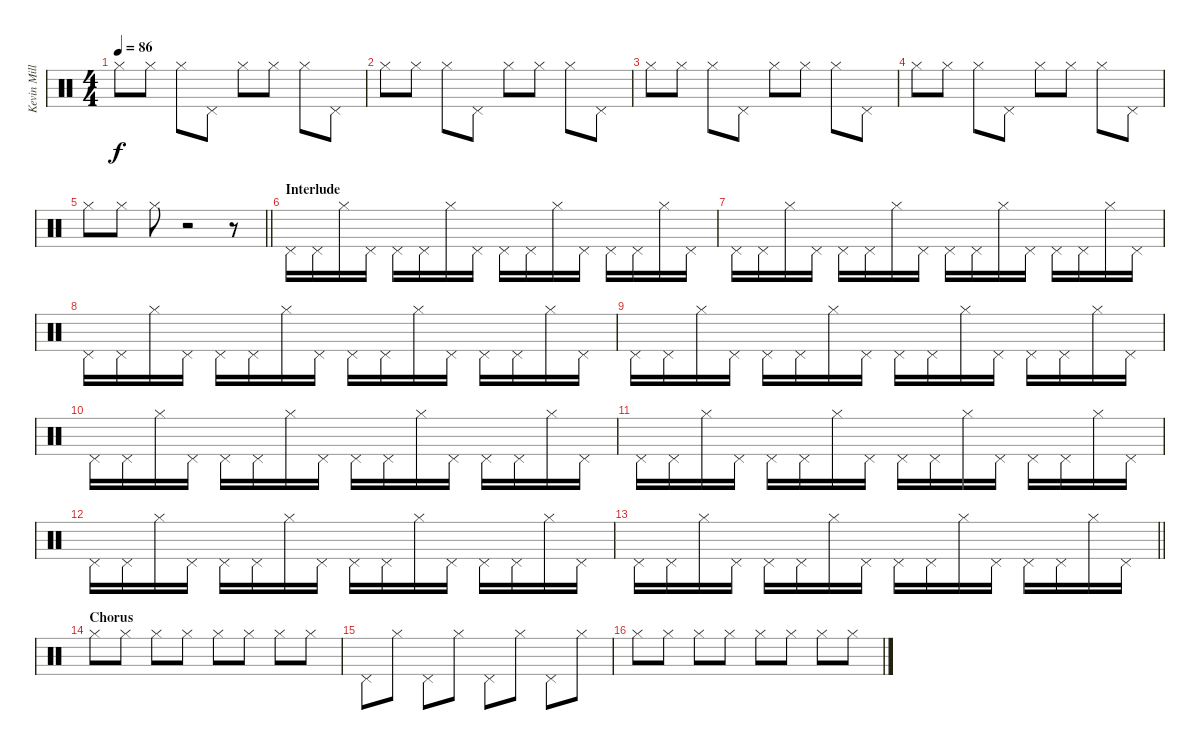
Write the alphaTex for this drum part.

\track ("Kevin Miller (Drums)" "Kevin Mill") {instrument percussion}
\staff {score}
\articulation defaults
\ts (4 4)
\tempo 86
\clef neutral
\ks c "Hi-Hat (closed)".8{dy f} "Hi-Hat (closed)".8 "Hi-Hat (closed)".8 "Pedal Hi-Hat (hit)".8 "Hi-Hat (closed)".8 "Hi-Hat (closed)".8 "Hi-Hat (closed)".8 "Pedal Hi-Hat (hit)".8
|
"Hi-Hat (closed)".8 "Hi-Hat (closed)".8 "Hi-Hat (closed)".8 "Pedal Hi-Hat (hit)".8 "Hi-Hat (closed)".8 "Hi-Hat (closed)".8 "Hi-Hat (closed)".8 "Pedal Hi-Hat (hit)".8 |
"Hi-Hat (closed)".8 "Hi-Hat (closed)".8 "Hi-Hat (closed)".8 "Pedal Hi-Hat (hit)".8 "Hi-Hat (closed)".8 "Hi-Hat (closed)".8 "Hi-Hat (closed)".8 "Pedal Hi-Hat (hit)".8 |
"Hi-Hat (closed)".8 "Hi-Hat (closed)".8 "Hi-Hat (closed)".8 "Pedal Hi-Hat (hit)".8 "Hi-Hat (closed)".8 "Hi-Hat (closed)".8 "Hi-Hat (closed)".8 "Pedal Hi-Hat (hit)".8 |
\barLineRight lightlight "Hi-Hat (closed)".8 "Hi-Hat (closed)".8 "Hi-Hat (closed)".8
r.2 r.8 |
\section ("" "Interlude")
"Pedal Hi-Hat (hit)".16 "Pedal Hi-Hat (hit)".16 "Hi-Hat (closed)".16 "Pedal Hi-Hat (hit)".16 "Pedal Hi-Hat (hit)".16 "Pedal Hi-Hat (hit)".16 "Hi-Hat (closed)".16 "Pedal Hi-Hat (hit)".16 "Pedal Hi-Hat (hit)".16 "Pedal Hi-Hat (hit)".16 "Hi-Hat (closed)".16 "Pedal Hi-Hat (hit)".16 "Pedal Hi-Hat (hit)".16 "Pedal Hi-Hat (hit)".16 "Hi-Hat (closed)".16 "Pedal Hi-Hat (hit)".16 |
"Pedal Hi-Hat (hit)".16 "Pedal Hi-Hat (hit)".16 "Hi-Hat (closed)".16 "Pedal Hi-Hat (hit)".16 "Pedal Hi-Hat (hit)".16 "Pedal Hi-Hat (hit)".16 "Hi-Hat (closed)".16 "Pedal Hi-Hat (hit)".16 "Pedal Hi-Hat (hit)".16 "Pedal Hi-Hat (hit)".16 "Hi-Hat (closed)".16 "Pedal Hi-Hat (hit)".16 "Pedal Hi-Hat (hit)".16 "Pedal Hi-Hat (hit)".16 "Hi-Hat (closed)".16 "Pedal Hi-Hat (hit)".16 |
"Pedal Hi-Hat (hit)".16 "Pedal Hi-Hat (hit)".16 "Hi-Hat (closed)".16 "Pedal Hi-Hat (hit)".16 "Pedal Hi-Hat (hit)".16 "Pedal Hi-Hat (hit)".16 "Hi-Hat (closed)".16 "Pedal Hi-Hat (hit)".16 "Pedal Hi-Hat (hit)".16 "Pedal Hi-Hat (hit)".16 "Hi-Hat (closed)".16 "Pedal Hi-Hat (hit)".16 "Pedal Hi-Hat (hit)".16 "Pedal Hi-Hat (hit)".16 "Hi-Hat (closed)".16 "Pedal Hi-Hat (hit)".16 |
"Pedal Hi-Hat (hit)".16 "Pedal Hi-Hat (hit)".16 "Hi-Hat (closed)".16 "Pedal Hi-Hat (hit)".16 "Pedal Hi-Hat (hit)".16 "Pedal Hi-Hat (hit)".16 "Hi-Hat (closed)".16 "Pedal Hi-Hat (hit)".16 "Pedal Hi-Hat (hit)".16 "Pedal Hi-Hat (hit)".16 "Hi-Hat (closed)".16 "Pedal Hi-Hat (hit)".16 "Pedal Hi-Hat (hit)".16 "Pedal Hi-Hat (hit)".16 "Hi-Hat (closed)".16 "Pedal Hi-Hat (hit)".16 |
"Pedal Hi-Hat (hit)".16 "Pedal Hi-Hat (hit)".16 "Hi-Hat (closed)".16 "Pedal Hi-Hat (hit)".16 "Pedal Hi-Hat (hit)".16 "Pedal Hi-Hat (hit)".16 "Hi-Hat (closed)".16 "Pedal Hi-Hat (hit)".16 "Pedal Hi-Hat (hit)".16 "Pedal Hi-Hat (hit)".16 "Hi-Hat (closed)".16 "Pedal Hi-Hat (hit)".16 "Pedal Hi-Hat (hit)".16 "Pedal Hi-Hat (hit)".16 "Hi-Hat (closed)".16 "Pedal Hi-Hat (hit)".16 |
"Pedal Hi-Hat (hit)".16 "Pedal Hi-Hat (hit)".16 "Hi-Hat (closed)".16 "Pedal Hi-Hat (hit)".16 "Pedal Hi-Hat (hit)".16 "Pedal Hi-Hat (hit)".16 "Hi-Hat (closed)".16 "Pedal Hi-Hat (hit)".16 "Pedal Hi-Hat (hit)".16 "Pedal Hi-Hat (hit)".16 "Hi-Hat (closed)".16 "Pedal Hi-Hat (hit)".16 "Pedal Hi-Hat (hit)".16 "Pedal Hi-Hat (hit)".16 "Hi-Hat (closed)".16 "Pedal Hi-Hat (hit)".16 |
"Pedal Hi-Hat (hit)".16 "Pedal Hi-Hat (hit)".16 "Hi-Hat (closed)".16 "Pedal Hi-Hat (hit)".16 "Pedal Hi-Hat (hit)".16 "Pedal Hi-Hat (hit)".16 "Hi-Hat (closed)".16 "Pedal Hi-Hat (hit)".16 "Pedal Hi-Hat (hit)".16 "Pedal Hi-Hat (hit)".16 "Hi-Hat (closed)".16 "Pedal Hi-Hat (hit)".16 "Pedal Hi-Hat (hit)".16 "Pedal Hi-Hat (hit)".16 "Hi-Hat (closed)".16 "Pedal Hi-Hat (hit)".16 |
\barLineRight lightlight "Pedal Hi-Hat (hit)".16 "Pedal Hi-Hat (hit)".16 "Hi-Hat (closed)".16 "Pedal Hi-Hat (hit)".16 "Pedal Hi-Hat (hit)".16 "Pedal Hi-Hat (hit)".16 "Hi-Hat (closed)".16 "Pedal Hi-Hat (hit)".16 "Pedal Hi-Hat (hit)".16 "Pedal Hi-Hat (hit)".16 "Hi-Hat (closed)".16 "Pedal Hi-Hat (hit)".16 "Pedal Hi-Hat (hit)".16 "Pedal Hi-Hat (hit)".16 "Hi-Hat (closed)".16 "Pedal Hi-Hat (hit)".16
|
\section ("" "Chorus")
"Hi-Hat (closed)".8 "Hi-Hat (closed)".8 "Hi-Hat (closed)".8 "Hi-Hat (closed)".8 "Hi-Hat (closed)".8 "Hi-Hat (closed)".8 "Hi-Hat (closed)".8 "Hi-Hat (closed)".8 |
"Pedal Hi-Hat (hit)".8 "Hi-Hat (closed)".8 "Pedal Hi-Hat (hit)".8 "Hi-Hat (closed)".8 "Pedal Hi-Hat (hit)".8 "Hi-Hat (closed)".8 "Pedal Hi-Hat (hit)".8 "Hi-Hat (closed)".8 |
"Hi-Hat (closed)".8 "Hi-Hat (closed)".8 "Hi-Hat (closed)".8 "Hi-Hat (closed)".8 "Hi-Hat (closed)".8 "Hi-Hat (closed)".8 "Hi-Hat (closed)".8 "Hi-Hat (closed)".8
